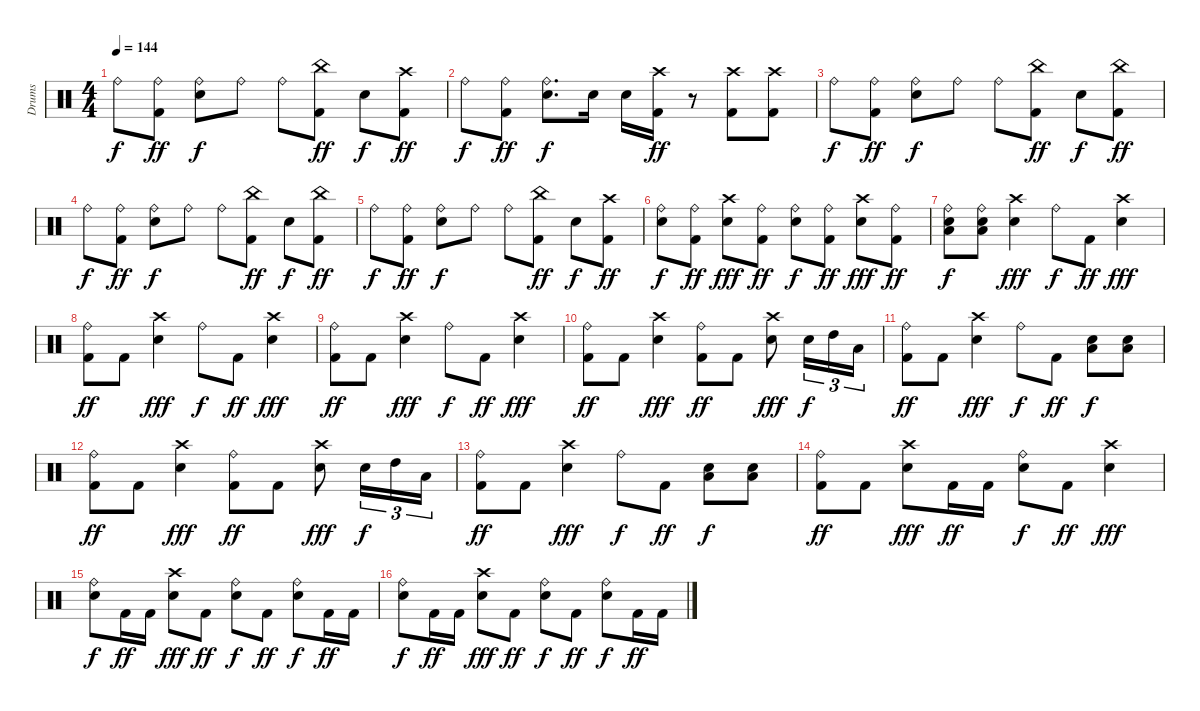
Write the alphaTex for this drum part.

\track ("Drums" "Drums") {instrument percussion}
\staff {score}
\articulation defaults
\ts (4 4)
\tempo 144
\clef neutral
\ks c "Ride (bell)".8{dy f}
("Ride (bell)" "Kick (hit) 2").8{dy ff} ("Ride (bell)" "Snare (hit) 2").8{dy f} "Ride (bell)".8 "Ride (bell)".8 ("China (hit)" "Kick (hit) 2").8{dy ff} "Snare (hit) 2".8{dy f} ("Crash high (hit)" "Kick (hit) 2").8{dy ff} |
"Ride (bell)".8{dy f} ("Ride (bell)" "Kick (hit) 2").8{dy ff} ("Ride (bell)" "Snare (hit) 2").8{d dy f} "Snare (hit) 2".16 "Snare (hit) 2".16 ("Crash high (hit)" "Kick (hit) 2").16{dy ff} r.8 ("Crash high (hit)" "Kick (hit) 2").8 ("Crash high (hit)" "Kick (hit) 2").8 |
"Ride (bell)".8{dy f} ("Ride (bell)" "Kick (hit) 2").8{dy ff} ("Ride (bell)" "Snare (hit) 2").8{dy f} "Ride (bell)".8 "Ride (bell)".8 ("China (hit)" "Kick (hit) 2").8{dy ff} "Snare (hit) 2".8{dy f} ("China (hit)" "Kick (hit) 2").8{dy ff} |
"Ride (bell)".8{dy f} ("Ride (bell)" "Kick (hit) 2").8{dy ff} ("Ride (bell)" "Snare (hit) 2").8{dy f} "Ride (bell)".8 "Ride (bell)".8 ("China (hit)" "Kick (hit) 2").8{dy ff} "Snare (hit) 2".8{dy f} ("China (hit)" "Kick (hit) 2").8{dy ff} |
"Ride (bell)".8{dy f} ("Ride (bell)" "Kick (hit) 2").8{dy ff} ("Ride (bell)" "Snare (hit) 2").8{dy f} "Ride (bell)".8 "Ride (bell)".8 ("China (hit)" "Kick (hit) 2").8{dy ff} "Snare (hit) 2".8{dy f} ("Crash high (hit)" "Kick (hit) 2").8{dy ff} |
("Ride (bell)" "Snare (hit) 2").8{dy f} ("Ride (bell)" "Kick (hit) 2").8{dy ff} ("Crash high (hit)" "Snare (hit) 2").8{dy fff} ("Ride (bell)" "Kick (hit) 2").8{dy ff} ("Ride (bell)" "Snare (hit) 2").8{dy f} ("Ride (bell)" "Kick (hit) 2").8{dy ff} ("Crash high (hit)" "Snare (hit) 2").8{dy fff} ("Ride (bell)" "Kick (hit) 2").8{dy ff} |
("Ride (bell)" "Snare (hit) 2" "Low Tom (hit)").8{dy f} ("Ride (bell)" "Snare (hit) 2" "Low Tom (hit)").8 ("Crash high (hit)" "Snare (hit) 2").4{dy fff} "Ride (bell)".8{dy f} "Kick (hit) 2".8{dy ff} ("Crash high (hit)" "Snare (hit) 2").4{dy fff} |
("Ride (bell)" "Kick (hit) 2").8{dy ff} "Kick (hit) 2".8 ("Crash high (hit)" "Snare (hit) 2").4{dy fff} "Ride (bell)".8{dy f} "Kick (hit) 2".8{dy ff} ("Crash high (hit)" "Snare (hit) 2").4{dy fff} |
("Ride (bell)" "Kick (hit) 2").8{dy ff} "Kick (hit) 2".8 ("Crash high (hit)" "Snare (hit) 2").4{dy fff} "Ride (bell)".8{dy f} "Kick (hit) 2".8{dy ff} ("Crash high (hit)" "Snare (hit) 2").4{dy fff} |
("Ride (bell)" "Kick (hit) 2").8{dy ff} "Kick (hit) 2".8 ("Crash high (hit)" "Snare (hit) 2").4{dy fff} ("Ride (bell)" "Kick (hit) 2").8{dy ff} "Kick (hit) 2".8 ("Crash high (hit)" "Snare (hit) 2").8{dy fff} "Snare (hit) 2".16{tu (3 2) dy f} "High Tom (hit)".16{tu (3 2)} "Low Floor Tom (hit)".16{tu (3 2)} |
("Ride (bell)" "Kick (hit) 2").8{dy ff} "Kick (hit) 2".8 ("Crash high (hit)" "Snare (hit) 2").4{dy fff} "Ride (bell)".8{dy f} "Kick (hit) 2".8{dy ff} ("Snare (hit) 2" "Low Tom (hit)").8{dy f} ("Snare (hit) 2" "Low Tom (hit)").8 |
("Ride (bell)" "Kick (hit) 2").8{dy ff} "Kick (hit) 2".8 ("Crash high (hit)" "Snare (hit) 2").4{dy fff} ("Ride (bell)" "Kick (hit) 2").8{dy ff} "Kick (hit) 2".8 ("Crash high (hit)" "Snare (hit) 2").8{dy fff} "Snare (hit) 2".16{tu (3 2) dy f} "High Tom (hit)".16{tu (3 2)} "Low Floor Tom (hit)".16{tu (3 2)} |
("Ride (bell)" "Kick (hit) 2").8{dy ff} "Kick (hit) 2".8 ("Crash high (hit)" "Snare (hit) 2").4{dy fff} "Ride (bell)".8{dy f} "Kick (hit) 2".8{dy ff} ("Snare (hit) 2" "Low Tom (hit)").8{dy f} ("Snare (hit) 2" "Low Tom (hit)").8 |
("Ride (bell)" "Kick (hit) 2").8{dy ff} "Kick (hit) 2".8 ("Crash high (hit)" "Snare (hit) 2").8{dy fff} "Kick (hit) 2".16{dy ff} "Kick (hit) 2".16 ("Ride (bell)" "Snare (hit) 2").8{dy f} "Kick (hit) 2".8{dy ff} ("Crash high (hit)" "Snare (hit) 2").4{dy fff} |
("Ride (bell)" "Snare (hit) 2").8{dy f} "Kick (hit) 2".16{dy ff} "Kick (hit) 2".16 ("Crash high (hit)" "Snare (hit) 2").8{dy fff} "Kick (hit) 2".8{dy ff} ("Ride (bell)" "Snare (hit) 2").8{dy f} "Kick (hit) 2".8{dy ff} ("Ride (bell)" "Snare (hit) 2").8{dy f} "Kick (hit) 2".16{dy ff} "Kick (hit) 2".16 |
("Ride (bell)" "Snare (hit) 2").8{dy f} "Kick (hit) 2".16{dy ff} "Kick (hit) 2".16 ("Crash high (hit)" "Snare (hit) 2").8{dy fff} "Kick (hit) 2".8{dy ff} ("Ride (bell)" "Snare (hit) 2").8{dy f} "Kick (hit) 2".8{dy ff} ("Ride (bell)" "Snare (hit) 2").8{dy f} "Kick (hit) 2".16{dy ff} "Kick (hit) 2".16
